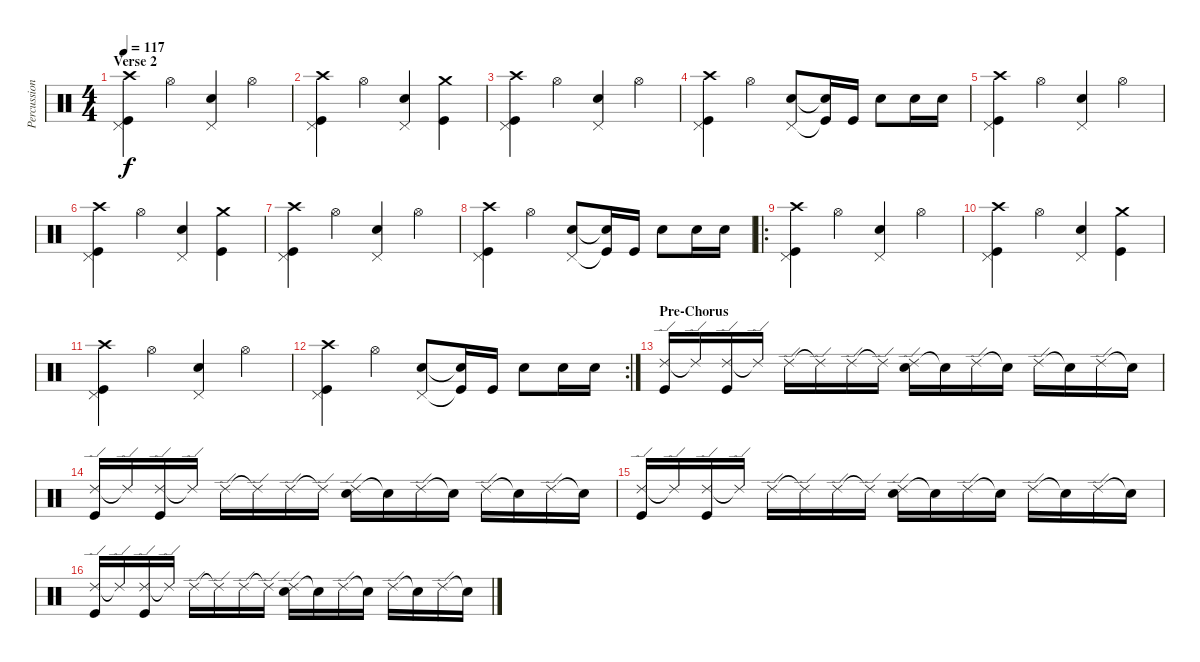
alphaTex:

\track ("Percussions" "Percussion") {instrument percussion}
\staff {score}
\articulation defaults
\ts (4 4)
\section ("" "Verse 2")
\tempo 117
\clef neutral
\ks c
("Crash high (hit)" "Kick (hit)" "Pedal Hi-Hat (hit)").4{dy f} "Hi-Hat (open)".4 ("Pedal Hi-Hat (hit)" "Electric Snare (hit)").4 "Hi-Hat (open)".4 |
("Crash high (hit)" "Kick (hit)" "Pedal Hi-Hat (hit)").4 "Hi-Hat (open)".4 ("Pedal Hi-Hat (hit)" "Electric Snare (hit)").4 ("Crash medium (hit)" "Kick (hit)").4 |
("Crash high (hit)" "Kick (hit)" "Pedal Hi-Hat (hit)").4 "Hi-Hat (open)".4 ("Pedal Hi-Hat (hit)" "Electric Snare (hit)").4 "Hi-Hat (open)".4 |
("Crash high (hit)" "Kick (hit)" "Pedal Hi-Hat (hit)").4 "Hi-Hat (open)".4 ("Pedal Hi-Hat (hit)" "Electric Snare (hit)").8 ("Kick (hit)"{t} "Snare (hit)"{t}).16 "Kick (hit)".16 "Electric Snare (hit)".8 "Electric Snare (hit)".16 "Electric Snare (hit)".16 |
("Crash high (hit)" "Kick (hit)" "Pedal Hi-Hat (hit)").4 "Hi-Hat (open)".4 ("Pedal Hi-Hat (hit)" "Electric Snare (hit)").4 "Hi-Hat (open)".4 |
("Crash high (hit)" "Kick (hit)" "Pedal Hi-Hat (hit)").4 "Hi-Hat (open)".4 ("Pedal Hi-Hat (hit)" "Electric Snare (hit)").4 ("Crash medium (hit)" "Kick (hit)").4 |
("Crash high (hit)" "Kick (hit)" "Pedal Hi-Hat (hit)").4 "Hi-Hat (open)".4 ("Pedal Hi-Hat (hit)" "Electric Snare (hit)").4 "Hi-Hat (open)".4 |
("Crash high (hit)" "Kick (hit)" "Pedal Hi-Hat (hit)").4 "Hi-Hat (open)".4 ("Pedal Hi-Hat (hit)" "Electric Snare (hit)").8 ("Kick (hit)"{t} "Snare (hit)"{t}).16 "Kick (hit)".16 "Electric Snare (hit)".8 "Electric Snare (hit)".16 "Electric Snare (hit)".16 |
\ro
("Crash high (hit)" "Kick (hit)" "Pedal Hi-Hat (hit)").4 "Hi-Hat (open)".4 ("Pedal Hi-Hat (hit)" "Electric Snare (hit)").4 "Hi-Hat (open)".4 |
("Crash high (hit)" "Kick (hit)" "Pedal Hi-Hat (hit)").4 "Hi-Hat (open)".4 ("Pedal Hi-Hat (hit)" "Electric Snare (hit)").4 ("Crash medium (hit)" "Kick (hit)").4 |
("Crash high (hit)" "Kick (hit)" "Pedal Hi-Hat (hit)").4 "Hi-Hat (open)".4 ("Pedal Hi-Hat (hit)" "Electric Snare (hit)").4 "Hi-Hat (open)".4 |
\rc 2
("Crash high (hit)" "Kick (hit)" "Pedal Hi-Hat (hit)").4 "Hi-Hat (open)".4 ("Pedal Hi-Hat (hit)" "Electric Snare (hit)").8 ("Kick (hit)"{t} "Snare (hit)"{t}).16 "Kick (hit)".16 "Electric Snare (hit)".8 "Electric Snare (hit)".16 "Electric Snare (hit)".16 |
\section ("" "Pre-Chorus")
("Ride (edge) 2" "Kick (hit)").16 "Ride (edge) 2"{t}.16 ("Ride (edge) 2" "Kick (hit)").16 "Ride (edge) 2"{t}.16 "Ride (edge) 2".16 "Ride (edge) 2"{t}.16 "Ride (edge) 2".16 "Ride (edge) 2"{t}.16 ("Ride (edge) 2" "Electric Snare (hit)").16 "Snare (hit)"{t}.16 "Ride (edge) 2".16 "Snare (hit)"{t}.16 "Ride (edge) 2".16 "Snare (hit)"{t}.16 "Ride (edge) 2".16 "Snare (hit)"{t}.16 |
("Ride (edge) 2" "Kick (hit)").16 "Ride (edge) 2"{t}.16 ("Ride (edge) 2" "Kick (hit)").16 "Ride (edge) 2"{t}.16 "Ride (edge) 2".16 "Ride (edge) 2"{t}.16 "Ride (edge) 2".16 "Ride (edge) 2"{t}.16 ("Ride (edge) 2" "Electric Snare (hit)").16 "Snare (hit)"{t}.16 "Ride (edge) 2".16 "Snare (hit)"{t}.16 "Ride (edge) 2".16 "Snare (hit)"{t}.16 "Ride (edge) 2".16 "Snare (hit)"{t}.16 |
("Ride (edge) 2" "Kick (hit)").16 "Ride (edge) 2"{t}.16 ("Ride (edge) 2" "Kick (hit)").16 "Ride (edge) 2"{t}.16 "Ride (edge) 2".16 "Ride (edge) 2"{t}.16 "Ride (edge) 2".16 "Ride (edge) 2"{t}.16 ("Ride (edge) 2" "Electric Snare (hit)").16 "Snare (hit)"{t}.16 "Ride (edge) 2".16 "Snare (hit)"{t}.16 "Ride (edge) 2".16 "Snare (hit)"{t}.16 "Ride (edge) 2".16 "Snare (hit)"{t}.16 |
("Ride (edge) 2" "Kick (hit)").16 "Ride (edge) 2"{t}.16 ("Ride (edge) 2" "Kick (hit)").16 "Ride (edge) 2"{t}.16 "Ride (edge) 2".16 "Ride (edge) 2"{t}.16 "Ride (edge) 2".16 "Ride (edge) 2"{t}.16 ("Ride (edge) 2" "Electric Snare (hit)").16 "Snare (hit)"{t}.16 "Ride (edge) 2".16 "Snare (hit)"{t}.16 "Ride (edge) 2".16 "Snare (hit)"{t}.16 "Ride (edge) 2".16 "Snare (hit)"{t}.16
